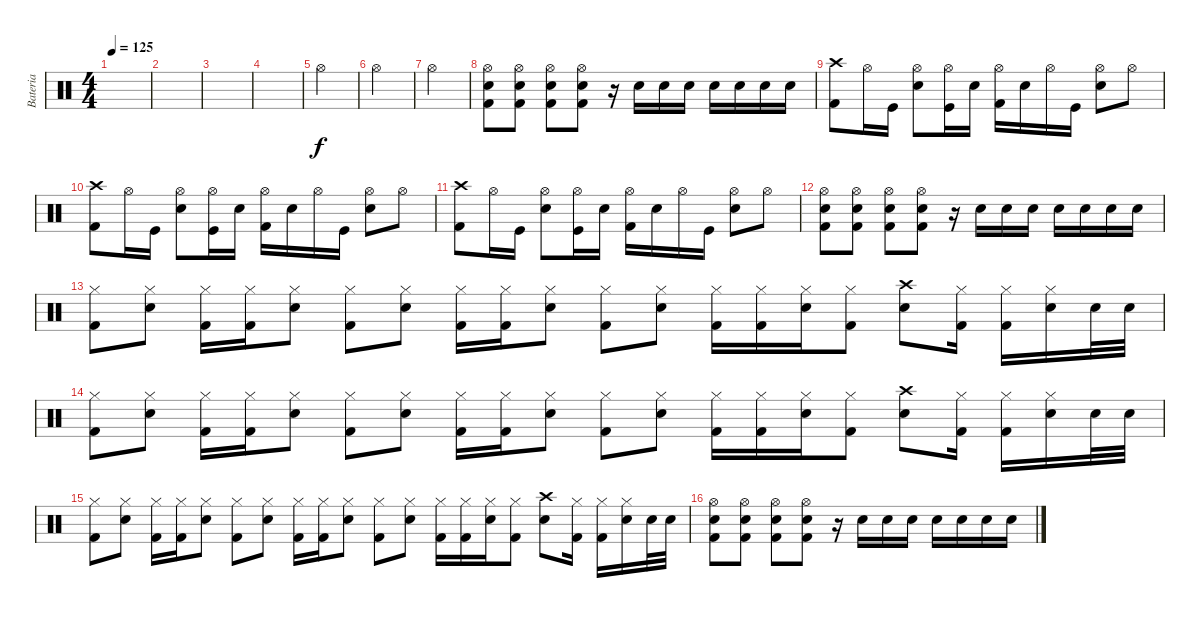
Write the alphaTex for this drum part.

\track ("Bateria" "Bateria") {instrument percussion}
\staff {score}
\articulation defaults
\ts (4 4)
\tempo 125
\clef neutral
\ks c
|
|
|
|
"Hi-Hat (open)".4 |
"Hi-Hat (open)".4 |
"Hi-Hat (open)".4 |
("Kick (hit) 2" "Snare (hit) 2" "Hi-Hat (open)").8 ("Kick (hit) 2" "Snare (hit) 2" "Hi-Hat (open)").8 ("Kick (hit) 2" "Snare (hit) 2" "Hi-Hat (open)").8 ("Kick (hit) 2" "Snare (hit) 2" "Hi-Hat (open)").8 r.16 "Snare (hit) 2".16 "Snare (hit) 2".16 "Snare (hit) 2".16 "Snare (hit) 2".16 "Snare (hit) 2".16 "Snare (hit) 2".16 "Snare (hit) 2".16 |
("Crash high (hit)" "Kick (hit) 2").8 "Hi-Hat (open)".16 "Kick (hit)".16 ("Hi-Hat (open)" "Electric Snare (hit)").8 ("Hi-Hat (open)" "Kick (hit)").16 "Electric Snare (hit)".16 ("Kick (hit) 2" "Hi-Hat (open)").16 "Electric Snare (hit)".16 "Hi-Hat (open)".16 "Kick (hit)".16 ("Hi-Hat (open)" "Electric Snare (hit)").8 "Hi-Hat (open)".8 |
("Crash high (hit)" "Kick (hit) 2").8 "Hi-Hat (open)".16 "Kick (hit)".16 ("Hi-Hat (open)" "Electric Snare (hit)").8 ("Hi-Hat (open)" "Kick (hit)").16 "Electric Snare (hit)".16 ("Kick (hit) 2" "Hi-Hat (open)").16 "Electric Snare (hit)".16 "Hi-Hat (open)".16 "Kick (hit)".16 ("Hi-Hat (open)" "Electric Snare (hit)").8 "Hi-Hat (open)".8 |
("Crash high (hit)" "Kick (hit) 2").8 "Hi-Hat (open)".16 "Kick (hit)".16 ("Hi-Hat (open)" "Electric Snare (hit)").8 ("Hi-Hat (open)" "Kick (hit)").16 "Electric Snare (hit)".16 ("Kick (hit) 2" "Hi-Hat (open)").16 "Electric Snare (hit)".16 "Hi-Hat (open)".16 "Kick (hit)".16 ("Hi-Hat (open)" "Electric Snare (hit)").8 "Hi-Hat (open)".8 |
("Kick (hit) 2" "Snare (hit) 2" "Hi-Hat (open)").8 ("Kick (hit) 2" "Snare (hit) 2" "Hi-Hat (open)").8 ("Kick (hit) 2" "Snare (hit) 2" "Hi-Hat (open)").8 ("Kick (hit) 2" "Snare (hit) 2" "Hi-Hat (open)").8 r.16 "Snare (hit) 2".16 "Snare (hit) 2".16 "Snare (hit) 2".16 "Snare (hit) 2".16 "Snare (hit) 2".16 "Snare (hit) 2".16 "Snare (hit) 2".16 |
("Kick (hit) 2" "Hi-Hat (closed)").8 ("Snare (hit) 2" "Hi-Hat (closed)").8 ("Kick (hit) 2" "Hi-Hat (closed)").16 ("Kick (hit) 2" "Hi-Hat (closed)").16 ("Snare (hit) 2" "Hi-Hat (closed)").8 ("Kick (hit) 2" "Hi-Hat (closed)").8 ("Snare (hit) 2" "Hi-Hat (closed)").8 ("Kick (hit) 2" "Hi-Hat (closed)").16 ("Kick (hit) 2" "Hi-Hat (closed)").16 ("Snare (hit) 2" "Hi-Hat (closed)").8 ("Kick (hit) 2" "Hi-Hat (closed)").8 ("Snare (hit) 2" "Hi-Hat (closed)").8 ("Kick (hit) 2" "Hi-Hat (closed)").16 ("Kick (hit) 2" "Hi-Hat (closed)").16 ("Snare (hit) 2" "Hi-Hat (closed)").16 ("Kick (hit) 2" "Hi-Hat (closed)").8 ("Snare (hit) 2" "Crash high (hit)").8 ("Kick (hit) 2" "Hi-Hat (closed)").16 ("Kick (hit) 2" "Hi-Hat (closed)").16 ("Snare (hit) 2" "Hi-Hat (closed)").16 "Snare (hit) 2".32 "Snare (hit) 2".32 |
("Kick (hit) 2" "Hi-Hat (closed)").8 ("Snare (hit) 2" "Hi-Hat (closed)").8 ("Kick (hit) 2" "Hi-Hat (closed)").16 ("Kick (hit) 2" "Hi-Hat (closed)").16 ("Snare (hit) 2" "Hi-Hat (closed)").8 ("Kick (hit) 2" "Hi-Hat (closed)").8 ("Snare (hit) 2" "Hi-Hat (closed)").8 ("Kick (hit) 2" "Hi-Hat (closed)").16 ("Kick (hit) 2" "Hi-Hat (closed)").16 ("Snare (hit) 2" "Hi-Hat (closed)").8 ("Kick (hit) 2" "Hi-Hat (closed)").8 ("Snare (hit) 2" "Hi-Hat (closed)").8 ("Kick (hit) 2" "Hi-Hat (closed)").16 ("Kick (hit) 2" "Hi-Hat (closed)").16 ("Snare (hit) 2" "Hi-Hat (closed)").16 ("Kick (hit) 2" "Hi-Hat (closed)").8 ("Snare (hit) 2" "Crash high (hit)").8 ("Kick (hit) 2" "Hi-Hat (closed)").16 ("Kick (hit) 2" "Hi-Hat (closed)").16 ("Snare (hit) 2" "Hi-Hat (closed)").16 "Snare (hit) 2".32 "Snare (hit) 2".32 |
("Kick (hit) 2" "Hi-Hat (closed)").8 ("Snare (hit) 2" "Hi-Hat (closed)").8 ("Kick (hit) 2" "Hi-Hat (closed)").16 ("Kick (hit) 2" "Hi-Hat (closed)").16 ("Snare (hit) 2" "Hi-Hat (closed)").8 ("Kick (hit) 2" "Hi-Hat (closed)").8 ("Snare (hit) 2" "Hi-Hat (closed)").8 ("Kick (hit) 2" "Hi-Hat (closed)").16 ("Kick (hit) 2" "Hi-Hat (closed)").16 ("Snare (hit) 2" "Hi-Hat (closed)").8 ("Kick (hit) 2" "Hi-Hat (closed)").8 ("Snare (hit) 2" "Hi-Hat (closed)").8 ("Kick (hit) 2" "Hi-Hat (closed)").16 ("Kick (hit) 2" "Hi-Hat (closed)").16 ("Snare (hit) 2" "Hi-Hat (closed)").16 ("Kick (hit) 2" "Hi-Hat (closed)").8 ("Snare (hit) 2" "Crash high (hit)").8 ("Kick (hit) 2" "Hi-Hat (closed)").16 ("Kick (hit) 2" "Hi-Hat (closed)").16 ("Snare (hit) 2" "Hi-Hat (closed)").16 "Snare (hit) 2".32 "Snare (hit) 2".32 |
("Kick (hit) 2" "Snare (hit) 2" "Hi-Hat (open)").8 ("Kick (hit) 2" "Snare (hit) 2" "Hi-Hat (open)").8 ("Kick (hit) 2" "Snare (hit) 2" "Hi-Hat (open)").8 ("Kick (hit) 2" "Snare (hit) 2" "Hi-Hat (open)").8 r.16 "Snare (hit) 2".16 "Snare (hit) 2".16 "Snare (hit) 2".16 "Snare (hit) 2".16 "Snare (hit) 2".16 "Snare (hit) 2".16 "Snare (hit) 2".16
